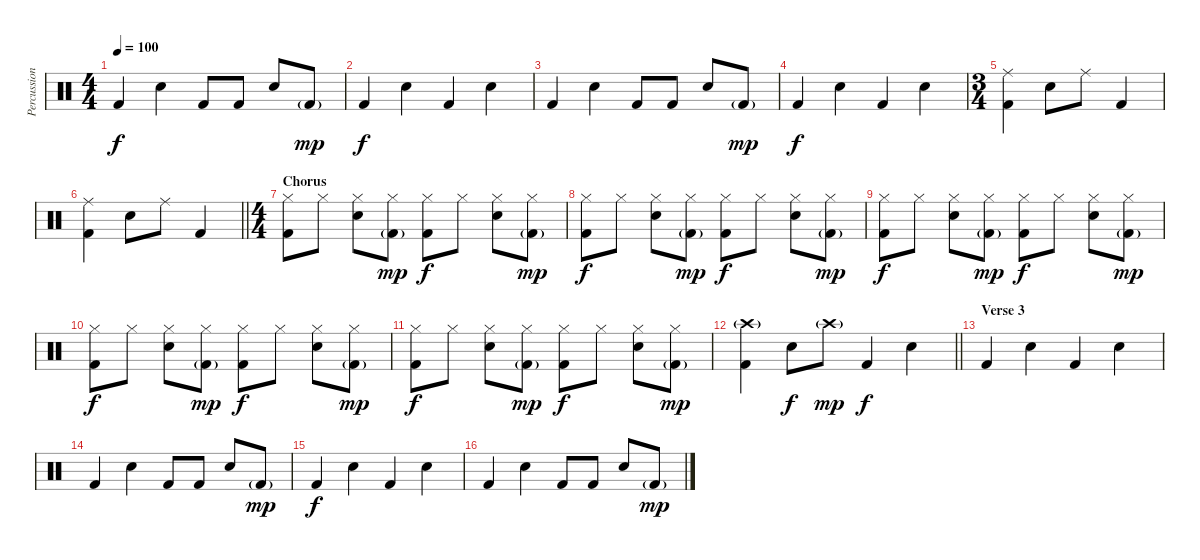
\track ("Percussion" "Percussion") {instrument percussion}
\staff {score}
\articulation defaults
\ts (4 4)
\tempo 100
\clef neutral
\ks c "Kick (hit) 2".4{dy f} "Snare (hit) 2".4 "Kick (hit) 2".8 "Kick (hit) 2".8 "Snare (hit) 2".8 "Kick (hit) 2"{g}.8{dy mp}
|
"Kick (hit) 2".4{dy f} "Snare (hit) 2".4 "Kick (hit) 2".4 "Snare (hit) 2".4 |
"Kick (hit) 2".4 "Snare (hit) 2".4 "Kick (hit) 2".8 "Kick (hit) 2".8 "Snare (hit) 2".8 "Kick (hit) 2"{g}.8{dy mp} |
"Kick (hit) 2".4{dy f} "Snare (hit) 2".4 "Kick (hit) 2".4 "Snare (hit) 2".4 |
\ts (3 4)
("Ride (middle)" "Kick (hit) 2").4 "Snare (hit) 2".8 "Ride (middle)".8 "Kick (hit) 2".4 |
\barLineRight lightlight
("Ride (middle)" "Kick (hit) 2").4 "Snare (hit) 2".8 "Ride (middle)".8 "Kick (hit) 2".4 |
\ts (4 4)
\section ("" "Chorus")
("Hi-Hat (closed)" "Kick (hit) 2").8 "Hi-Hat (closed)".8 ("Hi-Hat (closed)" "Snare (hit) 2").8 ("Hi-Hat (closed)" "Kick (hit) 2"{g}).8{dy mp} ("Hi-Hat (closed)" "Kick (hit) 2").8{dy f} "Hi-Hat (closed)".8 ("Hi-Hat (closed)" "Snare (hit) 2").8 ("Hi-Hat (closed)" "Kick (hit) 2"{g}).8{dy mp} |
("Hi-Hat (closed)" "Kick (hit) 2").8{dy f} "Hi-Hat (closed)".8 ("Hi-Hat (closed)" "Snare (hit) 2").8 ("Hi-Hat (closed)" "Kick (hit) 2"{g}).8{dy mp} ("Hi-Hat (closed)" "Kick (hit) 2").8{dy f} "Hi-Hat (closed)".8 ("Hi-Hat (closed)" "Snare (hit) 2").8 ("Hi-Hat (closed)" "Kick (hit) 2"{g}).8{dy mp} |
("Hi-Hat (closed)" "Kick (hit) 2").8{dy f} "Hi-Hat (closed)".8 ("Hi-Hat (closed)" "Snare (hit) 2").8 ("Hi-Hat (closed)" "Kick (hit) 2"{g}).8{dy mp} ("Hi-Hat (closed)" "Kick (hit) 2").8{dy f} "Hi-Hat (closed)".8 ("Hi-Hat (closed)" "Snare (hit) 2").8 ("Hi-Hat (closed)" "Kick (hit) 2"{g}).8{dy mp} |
("Hi-Hat (closed)" "Kick (hit) 2").8{dy f} "Hi-Hat (closed)".8 ("Hi-Hat (closed)" "Snare (hit) 2").8 ("Hi-Hat (closed)" "Kick (hit) 2"{g}).8{dy mp} ("Hi-Hat (closed)" "Kick (hit) 2").8{dy f} "Hi-Hat (closed)".8 ("Hi-Hat (closed)" "Snare (hit) 2").8 ("Hi-Hat (closed)" "Kick (hit) 2"{g}).8{dy mp} |
("Hi-Hat (closed)" "Kick (hit) 2").8{dy f} "Hi-Hat (closed)".8 ("Hi-Hat (closed)" "Snare (hit) 2").8 ("Hi-Hat (closed)" "Kick (hit) 2"{g}).8{dy mp} ("Hi-Hat (closed)" "Kick (hit) 2").8{dy f} "Hi-Hat (closed)".8 ("Hi-Hat (closed)" "Snare (hit) 2").8 ("Hi-Hat (closed)" "Kick (hit) 2"{g}).8{dy mp} |
\barLineRight lightlight
("Crash high (hit)"{g} "Kick (hit) 2").4 "Snare (hit) 2".8{dy f} "Crash high (hit)"{g}.8{dy mp} "Kick (hit) 2".4{dy f} "Snare (hit) 2".4 |
\section ("" "Verse 3")
"Kick (hit) 2".4 "Snare (hit) 2".4 "Kick (hit) 2".4 "Snare (hit) 2".4 |
"Kick (hit) 2".4 "Snare (hit) 2".4 "Kick (hit) 2".8 "Kick (hit) 2".8 "Snare (hit) 2".8 "Kick (hit) 2"{g}.8{dy mp} |
"Kick (hit) 2".4{dy f} "Snare (hit) 2".4 "Kick (hit) 2".4 "Snare (hit) 2".4 |
"Kick (hit) 2".4 "Snare (hit) 2".4 "Kick (hit) 2".8 "Kick (hit) 2".8 "Snare (hit) 2".8 "Kick (hit) 2"{g}.8{dy mp}
